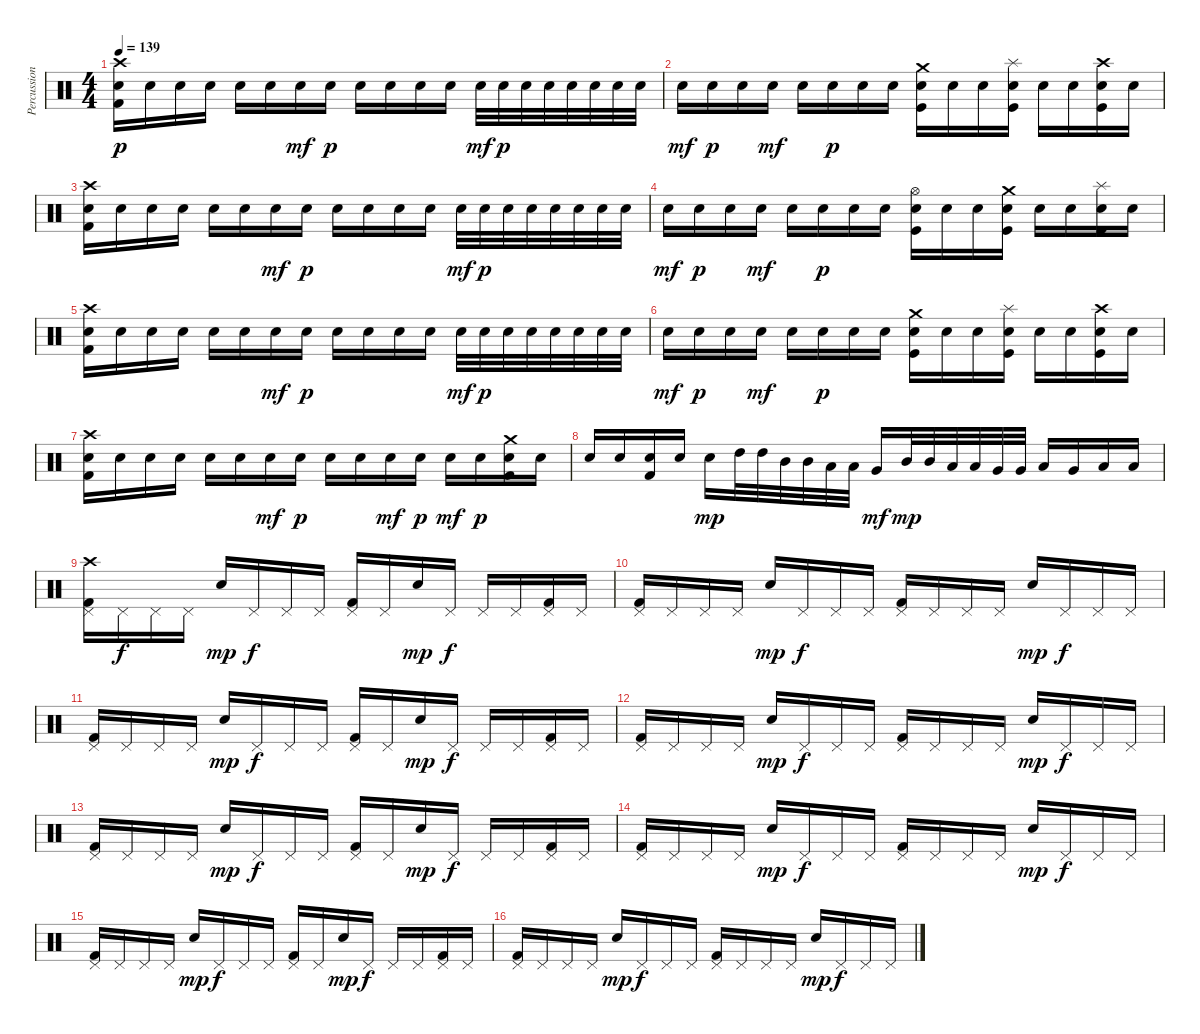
\track ("Percussion" "Percussion") {instrument percussion}
\staff {score}
\articulation defaults
\ts (4 4)
\tempo 139
\clef neutral
\ks c
("Crash high (hit)" "Electric Snare (hit)" "Kick (hit) 2").16{dy p} "Electric Snare (hit)".16 "Electric Snare (hit)".16 "Electric Snare (hit)".16 "Electric Snare (hit)".16 "Electric Snare (hit)".16 "Electric Snare (hit)".16{dy mf} "Electric Snare (hit)".16{dy p} "Electric Snare (hit)".16 "Electric Snare (hit)".16 "Electric Snare (hit)".16 "Electric Snare (hit)".16 "Electric Snare (hit)".32{dy mf} "Electric Snare (hit)".32{dy p} "Electric Snare (hit)".32 "Electric Snare (hit)".32 "Electric Snare (hit)".32 "Electric Snare (hit)".32 "Electric Snare (hit)".32 "Electric Snare (hit)".32 |
"Electric Snare (hit)".16{dy mf} "Electric Snare (hit)".16{dy p} "Electric Snare (hit)".16 "Electric Snare (hit)".16{dy mf} "Electric Snare (hit)".16 "Electric Snare (hit)".16{dy p} "Electric Snare (hit)".16 "Electric Snare (hit)".16 ("Crash medium (hit)" "Electric Snare (hit)" "Kick (hit)").16 "Electric Snare (hit)".16 "Electric Snare (hit)".16 ("Splash (hit)" "Electric Snare (hit)" "Kick (hit)").16 "Electric Snare (hit)".16 "Electric Snare (hit)".16 ("Crash high (hit)" "Electric Snare (hit)" "Kick (hit)").16 "Electric Snare (hit)".16 |
("Crash high (hit)" "Electric Snare (hit)" "Kick (hit) 2").16 "Electric Snare (hit)".16 "Electric Snare (hit)".16 "Electric Snare (hit)".16 "Electric Snare (hit)".16 "Electric Snare (hit)".16 "Electric Snare (hit)".16{dy mf} "Electric Snare (hit)".16{dy p} "Electric Snare (hit)".16 "Electric Snare (hit)".16 "Electric Snare (hit)".16 "Electric Snare (hit)".16 "Electric Snare (hit)".32{dy mf} "Electric Snare (hit)".32{dy p} "Electric Snare (hit)".32 "Electric Snare (hit)".32 "Electric Snare (hit)".32 "Electric Snare (hit)".32 "Electric Snare (hit)".32 "Electric Snare (hit)".32 |
"Electric Snare (hit)".16{dy mf} "Electric Snare (hit)".16{dy p} "Electric Snare (hit)".16 "Electric Snare (hit)".16{dy mf} "Electric Snare (hit)".16 "Electric Snare (hit)".16{dy p} "Electric Snare (hit)".16 "Electric Snare (hit)".16 ("Hi-Hat (open)" "Electric Snare (hit)" "Kick (hit)").16 "Electric Snare (hit)".16 "Electric Snare (hit)".16 ("Crash medium (hit)" "Electric Snare (hit)" "Kick (hit)").16 "Electric Snare (hit)".16 "Electric Snare (hit)".16 ("Splash (hit)" "Electric Snare (hit)" "Kick (hit)").16 "Electric Snare (hit)".16 |
("Crash high (hit)" "Electric Snare (hit)" "Kick (hit) 2").16 "Electric Snare (hit)".16 "Electric Snare (hit)".16 "Electric Snare (hit)".16 "Electric Snare (hit)".16 "Electric Snare (hit)".16 "Electric Snare (hit)".16{dy mf} "Electric Snare (hit)".16{dy p} "Electric Snare (hit)".16 "Electric Snare (hit)".16 "Electric Snare (hit)".16 "Electric Snare (hit)".16 "Electric Snare (hit)".32{dy mf} "Electric Snare (hit)".32{dy p} "Electric Snare (hit)".32 "Electric Snare (hit)".32 "Electric Snare (hit)".32 "Electric Snare (hit)".32 "Electric Snare (hit)".32 "Electric Snare (hit)".32 |
"Electric Snare (hit)".16{dy mf} "Electric Snare (hit)".16{dy p} "Electric Snare (hit)".16 "Electric Snare (hit)".16{dy mf} "Electric Snare (hit)".16 "Electric Snare (hit)".16{dy p} "Electric Snare (hit)".16 "Electric Snare (hit)".16 ("Crash medium (hit)" "Electric Snare (hit)" "Kick (hit)").16 "Electric Snare (hit)".16 "Electric Snare (hit)".16 ("Splash (hit)" "Electric Snare (hit)" "Kick (hit)").16 "Electric Snare (hit)".16 "Electric Snare (hit)".16 ("Crash high (hit)" "Electric Snare (hit)" "Kick (hit)").16 "Electric Snare (hit)".16 |
("Crash high (hit)" "Electric Snare (hit)" "Kick (hit) 2").16 "Electric Snare (hit)".16 "Electric Snare (hit)".16 "Electric Snare (hit)".16 "Electric Snare (hit)".16 "Electric Snare (hit)".16 "Electric Snare (hit)".16{dy mf} "Electric Snare (hit)".16{dy p} "Electric Snare (hit)".16 "Electric Snare (hit)".16 "Electric Snare (hit)".16{dy mf} "Electric Snare (hit)".16{dy p} "Electric Snare (hit)".16{dy mf} "Electric Snare (hit)".16{dy p} ("Crash medium (hit)" "Electric Snare (hit)" "Kick (hit) 2").16 "Electric Snare (hit)".16 |
"Electric Snare (hit)".16 "Electric Snare (hit)".16 ("Electric Snare (hit)" "Kick (hit) 2").16 "Electric Snare (hit)".16 "Electric Snare (hit)".16{dy mp} "High Tom (hit)".32 "High Tom (hit)".32 "Mid Tom (hit)".32 "Mid Tom (hit)".32 "Low Tom (hit)".32 "Low Tom (hit)".32 "Very Low Tom (hit)".16{dy mf} "Mid Tom (hit)".32{dy mp} "Mid Tom (hit)".32 "Low Tom (hit)".32 "Low Tom (hit)".32 "Very Low Tom (hit)".32 "Very Low Tom (hit)".32 "Low Tom (hit)".16 "Very Low Tom (hit)".16 "Low Floor Tom (hit)".16 "Low Floor Tom (hit)".16 |
("Kick (hit) 2" "Crash high (hit)" "Pedal Hi-Hat (hit)").16 "Pedal Hi-Hat (hit)".16{dy f} "Pedal Hi-Hat (hit)".16 "Pedal Hi-Hat (hit)".16 "Electric Snare (hit)".16{dy mp} "Pedal Hi-Hat (hit)".16{dy f} "Pedal Hi-Hat (hit)".16 "Pedal Hi-Hat (hit)".16 ("Kick (hit) 2" "Pedal Hi-Hat (hit)").16 "Pedal Hi-Hat (hit)".16 "Electric Snare (hit)".16{dy mp} "Pedal Hi-Hat (hit)".16{dy f} "Pedal Hi-Hat (hit)".16 "Pedal Hi-Hat (hit)".16 ("Kick (hit) 2" "Pedal Hi-Hat (hit)").16 "Pedal Hi-Hat (hit)".16 |
("Kick (hit) 2" "Pedal Hi-Hat (hit)").16 "Pedal Hi-Hat (hit)".16 "Pedal Hi-Hat (hit)".16 "Pedal Hi-Hat (hit)".16 "Electric Snare (hit)".16{dy mp} "Pedal Hi-Hat (hit)".16{dy f} "Pedal Hi-Hat (hit)".16 "Pedal Hi-Hat (hit)".16 ("Kick (hit) 2" "Pedal Hi-Hat (hit)").16 "Pedal Hi-Hat (hit)".16 "Pedal Hi-Hat (hit)".16 "Pedal Hi-Hat (hit)".16 "Electric Snare (hit)".16{dy mp} "Pedal Hi-Hat (hit)".16{dy f} "Pedal Hi-Hat (hit)".16 "Pedal Hi-Hat (hit)".16 |
("Kick (hit) 2" "Pedal Hi-Hat (hit)").16 "Pedal Hi-Hat (hit)".16 "Pedal Hi-Hat (hit)".16 "Pedal Hi-Hat (hit)".16 "Electric Snare (hit)".16{dy mp} "Pedal Hi-Hat (hit)".16{dy f} "Pedal Hi-Hat (hit)".16 "Pedal Hi-Hat (hit)".16 ("Kick (hit) 2" "Pedal Hi-Hat (hit)").16 "Pedal Hi-Hat (hit)".16 "Electric Snare (hit)".16{dy mp} "Pedal Hi-Hat (hit)".16{dy f} "Pedal Hi-Hat (hit)".16 "Pedal Hi-Hat (hit)".16 ("Kick (hit) 2" "Pedal Hi-Hat (hit)").16 "Pedal Hi-Hat (hit)".16 |
("Kick (hit) 2" "Pedal Hi-Hat (hit)").16 "Pedal Hi-Hat (hit)".16 "Pedal Hi-Hat (hit)".16 "Pedal Hi-Hat (hit)".16 "Electric Snare (hit)".16{dy mp} "Pedal Hi-Hat (hit)".16{dy f} "Pedal Hi-Hat (hit)".16 "Pedal Hi-Hat (hit)".16 ("Kick (hit) 2" "Pedal Hi-Hat (hit)").16 "Pedal Hi-Hat (hit)".16 "Pedal Hi-Hat (hit)".16 "Pedal Hi-Hat (hit)".16 "Electric Snare (hit)".16{dy mp} "Pedal Hi-Hat (hit)".16{dy f} "Pedal Hi-Hat (hit)".16 "Pedal Hi-Hat (hit)".16 |
("Kick (hit) 2" "Pedal Hi-Hat (hit)").16 "Pedal Hi-Hat (hit)".16 "Pedal Hi-Hat (hit)".16 "Pedal Hi-Hat (hit)".16 "Electric Snare (hit)".16{dy mp} "Pedal Hi-Hat (hit)".16{dy f} "Pedal Hi-Hat (hit)".16 "Pedal Hi-Hat (hit)".16 ("Kick (hit) 2" "Pedal Hi-Hat (hit)").16 "Pedal Hi-Hat (hit)".16 "Electric Snare (hit)".16{dy mp} "Pedal Hi-Hat (hit)".16{dy f} "Pedal Hi-Hat (hit)".16 "Pedal Hi-Hat (hit)".16 ("Kick (hit) 2" "Pedal Hi-Hat (hit)").16 "Pedal Hi-Hat (hit)".16 |
("Kick (hit) 2" "Pedal Hi-Hat (hit)").16 "Pedal Hi-Hat (hit)".16 "Pedal Hi-Hat (hit)".16 "Pedal Hi-Hat (hit)".16 "Electric Snare (hit)".16{dy mp} "Pedal Hi-Hat (hit)".16{dy f} "Pedal Hi-Hat (hit)".16 "Pedal Hi-Hat (hit)".16 ("Kick (hit) 2" "Pedal Hi-Hat (hit)").16 "Pedal Hi-Hat (hit)".16 "Pedal Hi-Hat (hit)".16 "Pedal Hi-Hat (hit)".16 "Electric Snare (hit)".16{dy mp} "Pedal Hi-Hat (hit)".16{dy f} "Pedal Hi-Hat (hit)".16 "Pedal Hi-Hat (hit)".16 |
("Kick (hit) 2" "Pedal Hi-Hat (hit)").16 "Pedal Hi-Hat (hit)".16 "Pedal Hi-Hat (hit)".16 "Pedal Hi-Hat (hit)".16 "Electric Snare (hit)".16{dy mp} "Pedal Hi-Hat (hit)".16{dy f} "Pedal Hi-Hat (hit)".16 "Pedal Hi-Hat (hit)".16 ("Kick (hit) 2" "Pedal Hi-Hat (hit)").16 "Pedal Hi-Hat (hit)".16 "Electric Snare (hit)".16{dy mp} "Pedal Hi-Hat (hit)".16{dy f} "Pedal Hi-Hat (hit)".16 "Pedal Hi-Hat (hit)".16 ("Kick (hit) 2" "Pedal Hi-Hat (hit)").16 "Pedal Hi-Hat (hit)".16 |
("Kick (hit) 2" "Pedal Hi-Hat (hit)").16 "Pedal Hi-Hat (hit)".16 "Pedal Hi-Hat (hit)".16 "Pedal Hi-Hat (hit)".16 "Electric Snare (hit)".16{dy mp} "Pedal Hi-Hat (hit)".16{dy f} "Pedal Hi-Hat (hit)".16 "Pedal Hi-Hat (hit)".16 ("Kick (hit) 2" "Pedal Hi-Hat (hit)").16 "Pedal Hi-Hat (hit)".16 "Pedal Hi-Hat (hit)".16 "Pedal Hi-Hat (hit)".16 "Electric Snare (hit)".16{dy mp} "Pedal Hi-Hat (hit)".16{dy f} "Pedal Hi-Hat (hit)".16 "Pedal Hi-Hat (hit)".16
